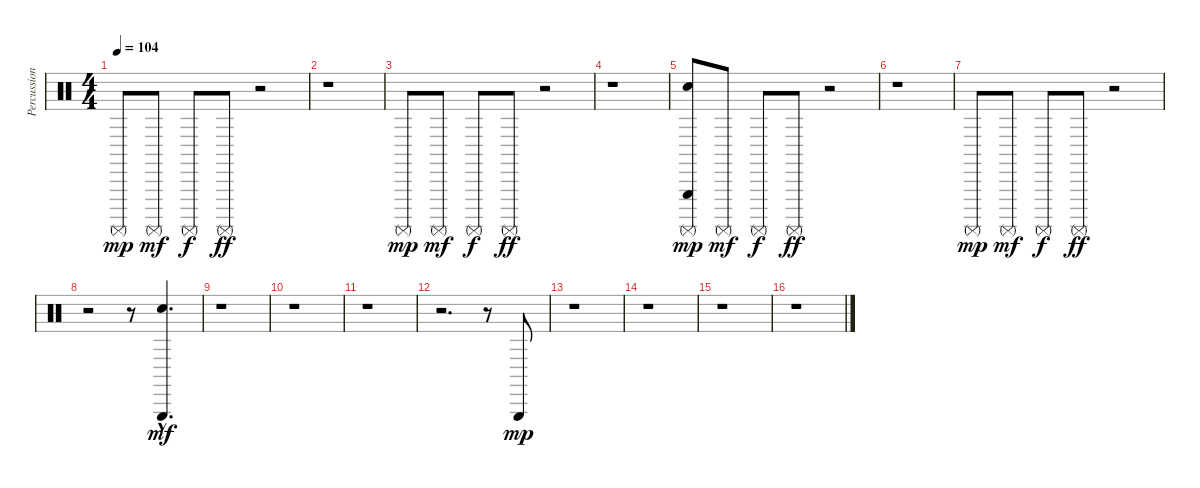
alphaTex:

\track ("Percussion" "Percussion") {instrument percussion}
\staff {score}
\articulation defaults
\ts (4 4)
\tempo 104
\clef neutral
\ks c "Surdo (mute)".8{dy mp} "Surdo (mute)".8{dy mf} "Surdo (mute)".8{dy f} "Surdo (mute)".8{dy ff}
r.2 |
r.1 |
"Surdo (mute)".8{dy mp} "Surdo (mute)".8{dy mf} "Surdo (mute)".8{dy f} "Surdo (mute)".8{dy ff} r.2 |
r.1 |
("Metronome (bell)" "Triangle (hit)" "Surdo (mute)").8{dy mp} "Surdo (mute)".8{dy mf} "Surdo (mute)".8{dy f} "Surdo (mute)".8{dy ff} r.2 |
r.1 |
"Surdo (mute)".8{dy mp} "Surdo (mute)".8{dy mf} "Surdo (mute)".8{dy f} "Surdo (mute)".8{dy ff} r.2 |
r.2 r.8 ("Metronome (bell)"{hac} "Triangle (hit)"{hac}).4{d dy mf} |
r.1 |
r.1 |
r.1 |
r.2{d} r.8 "Triangle (hit)".8{dy mp} |
r.1 |
r.1 |
r.1 |
r.1
